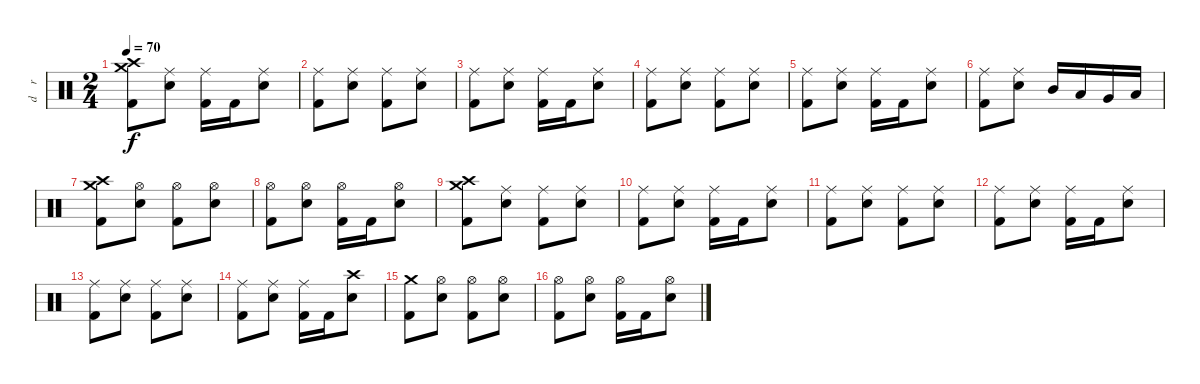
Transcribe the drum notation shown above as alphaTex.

\track ("d    r     u    m    s" "d    r    ") {instrument percussion}
\staff {score}
\articulation defaults
\ts (2 4)
\tempo 70
\clef neutral
\ks c
("Crash high (hit)" "Crash medium (hit)" "Kick (hit) 2").8{dy f} ("Ride (middle)" "Electric Snare (hit)").8 ("Ride (middle)" "Kick (hit) 2").16 "Kick (hit) 2".16 ("Ride (middle)" "Electric Snare (hit)").8 |
("Ride (middle)" "Kick (hit) 2").8 ("Ride (middle)" "Electric Snare (hit)").8 ("Ride (middle)" "Kick (hit) 2").8 ("Ride (middle)" "Electric Snare (hit)").8 |
("Ride (middle)" "Kick (hit) 2").8 ("Ride (middle)" "Electric Snare (hit)").8 ("Ride (middle)" "Kick (hit) 2").16 "Kick (hit) 2".16 ("Ride (middle)" "Electric Snare (hit)").8 |
("Ride (middle)" "Kick (hit) 2").8 ("Ride (middle)" "Electric Snare (hit)").8 ("Ride (middle)" "Kick (hit) 2").8 ("Ride (middle)" "Electric Snare (hit)").8 |
("Ride (middle)" "Kick (hit) 2").8 ("Ride (middle)" "Electric Snare (hit)").8 ("Ride (middle)" "Kick (hit) 2").16 "Kick (hit) 2".16 ("Ride (middle)" "Electric Snare (hit)").8 |
("Ride (middle)" "Kick (hit) 2").8 ("Ride (middle)" "Electric Snare (hit)").8 "Mid Tom (hit)".16 "Low Tom (hit)".16 "Very Low Tom (hit)".16 "Low Floor Tom (hit)".16 |
("Crash high (hit)" "Crash medium (hit)" "Kick (hit) 2").8 ("Hi-Hat (open)" "Electric Snare (hit)").8 ("Hi-Hat (open)" "Kick (hit) 2").8 ("Hi-Hat (open)" "Electric Snare (hit)").8 |
("Hi-Hat (open)" "Kick (hit) 2").8 ("Hi-Hat (open)" "Electric Snare (hit)").8 ("Hi-Hat (open)" "Kick (hit) 2").16 "Kick (hit) 2".16 ("Hi-Hat (open)" "Electric Snare (hit)").8 |
("Crash high (hit)" "Crash medium (hit)" "Kick (hit) 2").8 ("Ride (middle)" "Electric Snare (hit)").8 ("Ride (middle)" "Kick (hit) 2").8 ("Ride (middle)" "Electric Snare (hit)").8 |
("Ride (middle)" "Kick (hit) 2").8 ("Ride (middle)" "Electric Snare (hit)").8 ("Ride (middle)" "Kick (hit) 2").16 "Kick (hit) 2".16 ("Ride (middle)" "Electric Snare (hit)").8 |
("Ride (middle)" "Kick (hit) 2").8 ("Ride (middle)" "Electric Snare (hit)").8 ("Ride (middle)" "Kick (hit) 2").8 ("Ride (middle)" "Electric Snare (hit)").8 |
("Ride (middle)" "Kick (hit) 2").8 ("Ride (middle)" "Electric Snare (hit)").8 ("Ride (middle)" "Kick (hit) 2").16 "Kick (hit) 2".16 ("Ride (middle)" "Electric Snare (hit)").8 |
("Ride (middle)" "Kick (hit) 2").8 ("Ride (middle)" "Electric Snare (hit)").8 ("Ride (middle)" "Kick (hit) 2").8 ("Ride (middle)" "Electric Snare (hit)").8 |
("Ride (middle)" "Kick (hit) 2").8 ("Ride (middle)" "Electric Snare (hit)").8 ("Ride (middle)" "Kick (hit) 2").16 "Kick (hit) 2".16 ("Crash high (hit)" "Electric Snare (hit)").8 |
("Crash medium (hit)" "Kick (hit) 2").8 ("Hi-Hat (open)" "Electric Snare (hit)").8 ("Hi-Hat (open)" "Kick (hit) 2").8 ("Hi-Hat (open)" "Electric Snare (hit)").8 |
("Hi-Hat (open)" "Kick (hit) 2").8 ("Hi-Hat (open)" "Electric Snare (hit)").8 ("Hi-Hat (open)" "Kick (hit) 2").16 "Kick (hit) 2".16 ("Hi-Hat (open)" "Electric Snare (hit)").8
